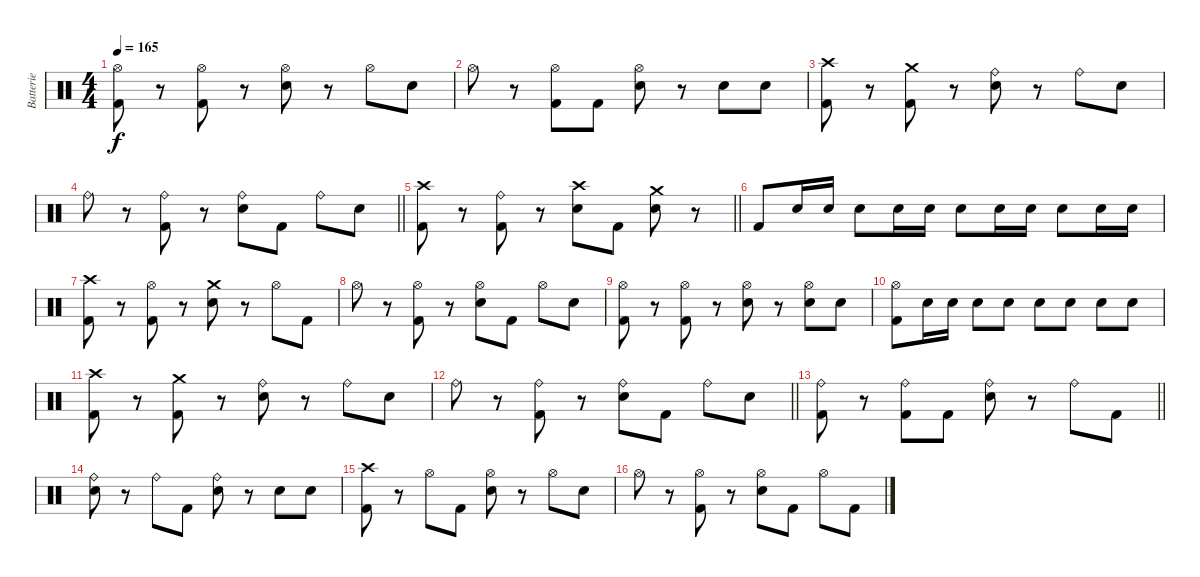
\track ("Batterie" "Batterie") {instrument percussion}
\staff {score}
\articulation defaults
\ts (4 4)
\tempo 165
\clef neutral
\ks c
("Hi-Hat (open)" "Kick (hit) 2").8{dy f} r.8 ("Hi-Hat (open)" "Kick (hit) 2").8 r.8 ("Hi-Hat (open)" "Electric Snare (hit)").8 r.8 "Hi-Hat (open)".8 "Electric Snare (hit)".8 |
"Hi-Hat (open)".8 r.8 ("Hi-Hat (open)" "Kick (hit) 2").8 "Kick (hit) 2".8 ("Hi-Hat (open)" "Electric Snare (hit)").8 r.8 "Electric Snare (hit)".8 "Electric Snare (hit)".8 |
("Crash high (hit)" "Kick (hit) 2").8 r.8 ("Crash medium (hit)" "Kick (hit) 2").8 r.8 ("Ride (bell)" "Electric Snare (hit)").8 r.8 "Ride (bell)".8 "Electric Snare (hit)".8 |
\barLineRight lightlight "Ride (bell)".8
r.8 ("Ride (bell)" "Kick (hit) 2").8 r.8 ("Ride (bell)" "Electric Snare (hit)").8 "Kick (hit) 2".8 "Ride (bell)".8 "Electric Snare (hit)".8 |
\barLineRight lightlight
("Crash high (hit)" "Kick (hit) 2").8 r.8 ("Ride (bell)" "Kick (hit) 2").8 r.8 ("Crash high (hit)" "Electric Snare (hit)").8 "Kick (hit) 2".8 ("Crash medium (hit)" "Electric Snare (hit)").8 r.8 |
"Kick (hit) 2".8 "Electric Snare (hit)".16 "Electric Snare (hit)".16 "Electric Snare (hit)".8 "Electric Snare (hit)".16 "Electric Snare (hit)".16 "Electric Snare (hit)".8 "Electric Snare (hit)".16 "Electric Snare (hit)".16 "Electric Snare (hit)".8 "Electric Snare (hit)".16 "Electric Snare (hit)".16 |
("Crash high (hit)" "Kick (hit) 2").8 r.8 ("Hi-Hat (open)" "Kick (hit) 2").8 r.8 ("Crash medium (hit)" "Electric Snare (hit)").8 r.8 "Hi-Hat (open)".8 "Kick (hit) 2".8 |
"Hi-Hat (open)".8 r.8 ("Hi-Hat (open)" "Kick (hit) 2").8 r.8 ("Hi-Hat (open)" "Electric Snare (hit)").8 "Kick (hit) 2".8 "Hi-Hat (open)".8 "Electric Snare (hit)".8 |
("Hi-Hat (open)" "Kick (hit) 2").8 r.8 ("Hi-Hat (open)" "Kick (hit) 2").8 r.8 ("Hi-Hat (open)" "Electric Snare (hit)").8 r.8 ("Hi-Hat (open)" "Electric Snare (hit)").8 "Electric Snare (hit)".8 |
("Hi-Hat (open)" "Kick (hit) 2").8 "Electric Snare (hit)".16 "Electric Snare (hit)".16 "Electric Snare (hit)".8 "Electric Snare (hit)".8 "Electric Snare (hit)".8 "Electric Snare (hit)".8 "Electric Snare (hit)".8 "Electric Snare (hit)".8 |
("Crash high (hit)" "Kick (hit) 2").8 r.8 ("Crash medium (hit)" "Kick (hit) 2").8 r.8 ("Ride (bell)" "Electric Snare (hit)").8 r.8 "Ride (bell)".8 "Electric Snare (hit)".8 |
\barLineRight lightlight "Ride (bell)".8
r.8 ("Ride (bell)" "Kick (hit) 2").8 r.8 ("Ride (bell)" "Electric Snare (hit)").8 "Kick (hit) 2".8 "Ride (bell)".8 "Electric Snare (hit)".8 |
\barLineRight lightlight
("Ride (bell)" "Kick (hit) 2").8 r.8 ("Ride (bell)" "Kick (hit) 2").8 "Kick (hit) 2".8 ("Ride (bell)" "Electric Snare (hit)").8 r.8 "Ride (bell)".8 "Kick (hit) 2".8 |
("Ride (bell)" "Electric Snare (hit)").8 r.8 "Ride (bell)".8 "Kick (hit) 2".8 ("Ride (bell)" "Electric Snare (hit)").8 r.8 "Electric Snare (hit)".8 "Electric Snare (hit)".8 |
("Crash high (hit)" "Kick (hit) 2").8 r.8 "Hi-Hat (open)".8 "Kick (hit) 2".8 ("Hi-Hat (open)" "Electric Snare (hit)").8 r.8 "Hi-Hat (open)".8 "Electric Snare (hit)".8 |
"Hi-Hat (open)".8 r.8 ("Hi-Hat (open)" "Kick (hit) 2").8 r.8 ("Hi-Hat (open)" "Electric Snare (hit)").8 "Kick (hit) 2".8 "Hi-Hat (open)".8 "Kick (hit) 2".8
